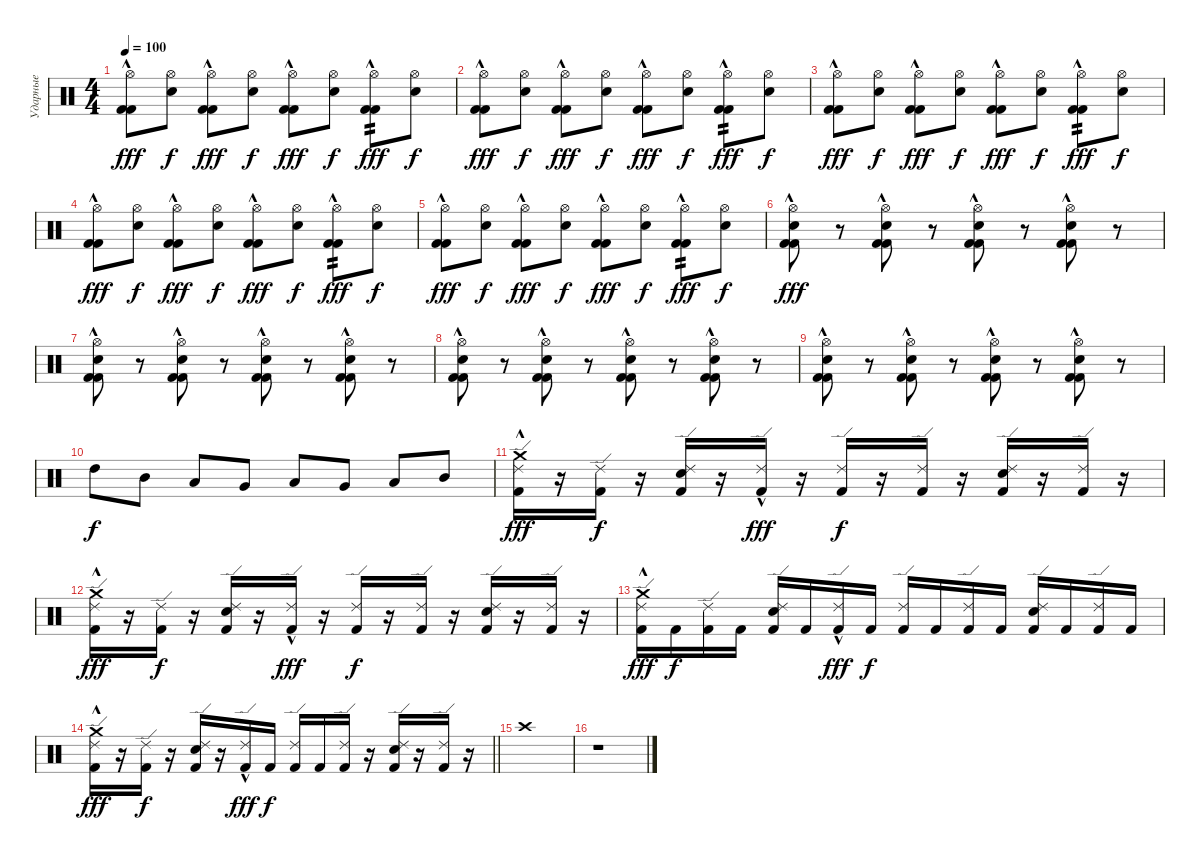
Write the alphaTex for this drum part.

\track ("Ударные" "Ударные") {instrument percussion}
\staff {score}
\articulation defaults
\ts (4 4)
\tempo 100
\clef neutral
\ks c
("Hi-Hat (open)" "Kick (hit) 2"{hac} "Kick (hit) 2").8{dy fff} ("Hi-Hat (open)" "Electric Snare (hit)").8{dy f} ("Hi-Hat (open)" "Kick (hit) 2"{hac} "Kick (hit) 2").8{dy fff} ("Hi-Hat (open)" "Electric Snare (hit)").8{dy f} ("Hi-Hat (open)" "Kick (hit) 2"{hac} "Kick (hit) 2").8{dy fff} ("Hi-Hat (open)" "Electric Snare (hit)").8{dy f} ("Hi-Hat (open)" "Kick (hit) 2"{hac} "Kick (hit) 2").8{tp 2 dy fff} ("Hi-Hat (open)" "Electric Snare (hit)").8{dy f} |
("Hi-Hat (open)" "Kick (hit) 2"{hac} "Kick (hit) 2").8{dy fff} ("Hi-Hat (open)" "Electric Snare (hit)").8{dy f} ("Hi-Hat (open)" "Kick (hit) 2"{hac} "Kick (hit) 2").8{dy fff} ("Hi-Hat (open)" "Electric Snare (hit)").8{dy f} ("Hi-Hat (open)" "Kick (hit) 2"{hac} "Kick (hit) 2").8{dy fff} ("Hi-Hat (open)" "Electric Snare (hit)").8{dy f} ("Hi-Hat (open)" "Kick (hit) 2"{hac} "Kick (hit) 2").8{tp 2 dy fff} ("Hi-Hat (open)" "Electric Snare (hit)").8{dy f} |
("Hi-Hat (open)" "Kick (hit) 2"{hac} "Kick (hit) 2").8{dy fff} ("Hi-Hat (open)" "Electric Snare (hit)").8{dy f} ("Hi-Hat (open)" "Kick (hit) 2"{hac} "Kick (hit) 2").8{dy fff} ("Hi-Hat (open)" "Electric Snare (hit)").8{dy f} ("Hi-Hat (open)" "Kick (hit) 2"{hac} "Kick (hit) 2").8{dy fff} ("Hi-Hat (open)" "Electric Snare (hit)").8{dy f} ("Hi-Hat (open)" "Kick (hit) 2"{hac} "Kick (hit) 2").8{tp 2 dy fff} ("Hi-Hat (open)" "Electric Snare (hit)").8{dy f} |
("Hi-Hat (open)" "Kick (hit) 2"{hac} "Kick (hit) 2").8{dy fff} ("Hi-Hat (open)" "Electric Snare (hit)").8{dy f} ("Hi-Hat (open)" "Kick (hit) 2"{hac} "Kick (hit) 2").8{dy fff} ("Hi-Hat (open)" "Electric Snare (hit)").8{dy f} ("Hi-Hat (open)" "Kick (hit) 2"{hac} "Kick (hit) 2").8{dy fff} ("Hi-Hat (open)" "Electric Snare (hit)").8{dy f} ("Hi-Hat (open)" "Kick (hit) 2"{hac} "Kick (hit) 2").8{tp 2 dy fff} ("Hi-Hat (open)" "Electric Snare (hit)").8{dy f} |
("Hi-Hat (open)" "Kick (hit) 2"{hac} "Kick (hit) 2").8{dy fff} ("Hi-Hat (open)" "Electric Snare (hit)").8{dy f} ("Hi-Hat (open)" "Kick (hit) 2"{hac} "Kick (hit) 2").8{dy fff} ("Hi-Hat (open)" "Electric Snare (hit)").8{dy f} ("Hi-Hat (open)" "Kick (hit) 2"{hac} "Kick (hit) 2").8{dy fff} ("Hi-Hat (open)" "Electric Snare (hit)").8{dy f} ("Hi-Hat (open)" "Kick (hit) 2"{hac} "Kick (hit) 2").8{tp 2 dy fff} ("Hi-Hat (open)" "Electric Snare (hit)").8{dy f} |
("Hi-Hat (open)" "Kick (hit) 2"{hac} "Kick (hit) 2" "Snare (hit) 2").8{dy fff} r.8 ("Hi-Hat (open)" "Kick (hit) 2"{hac} "Kick (hit) 2" "Snare (hit) 2").8 r.8 ("Hi-Hat (open)" "Kick (hit) 2"{hac} "Kick (hit) 2" "Snare (hit) 2").8 r.8 ("Hi-Hat (open)" "Kick (hit) 2"{hac} "Kick (hit) 2" "Snare (hit) 2").8 r.8 |
("Hi-Hat (open)" "Kick (hit) 2"{hac} "Kick (hit) 2" "Snare (hit) 2").8 r.8 ("Hi-Hat (open)" "Kick (hit) 2"{hac} "Kick (hit) 2" "Snare (hit) 2").8 r.8 ("Hi-Hat (open)" "Kick (hit) 2"{hac} "Kick (hit) 2" "Snare (hit) 2").8 r.8 ("Hi-Hat (open)" "Kick (hit) 2"{hac} "Kick (hit) 2" "Snare (hit) 2").8 r.8 |
("Hi-Hat (open)" "Kick (hit) 2"{hac} "Kick (hit) 2" "Snare (hit) 2").8 r.8 ("Hi-Hat (open)" "Kick (hit) 2"{hac} "Kick (hit) 2" "Snare (hit) 2").8 r.8 ("Hi-Hat (open)" "Kick (hit) 2"{hac} "Kick (hit) 2" "Snare (hit) 2").8 r.8 ("Hi-Hat (open)" "Kick (hit) 2"{hac} "Kick (hit) 2" "Snare (hit) 2").8 r.8 |
("Hi-Hat (open)" "Kick (hit) 2"{hac} "Kick (hit) 2" "Snare (hit) 2").8 r.8 ("Hi-Hat (open)" "Kick (hit) 2"{hac} "Kick (hit) 2" "Snare (hit) 2").8 r.8 ("Hi-Hat (open)" "Kick (hit) 2"{hac} "Kick (hit) 2" "Snare (hit) 2").8 r.8 ("Hi-Hat (open)" "Kick (hit) 2"{hac} "Kick (hit) 2" "Snare (hit) 2").8 r.8 |
"High Tom (hit)".8{dy f} "Mid Tom (hit)".8 "Low Tom (hit)".8 "Very Low Tom (hit)".8 "Low Floor Tom (hit)".8 "Very Low Tom (hit)".8 "Low Tom (hit)".8 "Mid Tom (hit)".8 |
("Ride (edge) 2" "Crash medium (hit)" "Kick (hit) 2"{hac}).16{dy fff} r.16 ("Ride (edge) 2" "Kick (hit) 2").16{dy f} r.16 ("Ride (edge) 2" "Snare (hit) 2" "Kick (hit) 2").16 r.16 ("Ride (edge) 2" "Kick (hit) 2"{hac}).16{dy fff} r.16 ("Ride (edge) 2" "Kick (hit) 2").16{dy f} r.16 ("Ride (edge) 2" "Kick (hit) 2").16 r.16 ("Ride (edge) 2" "Snare (hit) 2" "Kick (hit) 2").16 r.16 ("Ride (edge) 2" "Kick (hit) 2").16 r.16 |
("Ride (edge) 2" "Crash medium (hit)" "Kick (hit) 2"{hac}).16{dy fff} r.16 ("Ride (edge) 2" "Kick (hit) 2").16{dy f} r.16 ("Ride (edge) 2" "Snare (hit) 2" "Kick (hit) 2").16 r.16 ("Ride (edge) 2" "Kick (hit) 2"{hac}).16{dy fff} r.16 ("Ride (edge) 2" "Kick (hit) 2").16{dy f} r.16 ("Ride (edge) 2" "Kick (hit) 2").16 r.16 ("Ride (edge) 2" "Snare (hit) 2" "Kick (hit) 2").16 r.16 ("Ride (edge) 2" "Kick (hit) 2").16 r.16 |
("Ride (edge) 2" "Crash medium (hit)" "Kick (hit) 2"{hac}).16{dy fff} "Kick (hit) 2".16{dy f} ("Ride (edge) 2" "Kick (hit) 2").16 "Kick (hit) 2".16 ("Ride (edge) 2" "Snare (hit) 2" "Kick (hit) 2").16 "Kick (hit) 2".16 ("Ride (edge) 2" "Kick (hit) 2"{hac}).16{dy fff} "Kick (hit) 2".16{dy f} ("Ride (edge) 2" "Kick (hit) 2").16 "Kick (hit) 2".16 ("Ride (edge) 2" "Kick (hit) 2").16 "Kick (hit) 2".16 ("Ride (edge) 2" "Snare (hit) 2" "Kick (hit) 2").16 "Kick (hit) 2".16 ("Ride (edge) 2" "Kick (hit) 2").16 "Kick (hit) 2".16 |
\barLineRight lightlight
("Ride (edge) 2" "Crash medium (hit)" "Kick (hit) 2"{hac}).16{dy fff} r.16 ("Ride (edge) 2" "Kick (hit) 2").16{dy f} r.16 ("Ride (edge) 2" "Snare (hit) 2" "Kick (hit) 2").16 r.16 ("Ride (edge) 2" "Kick (hit) 2"{hac}).16{dy fff} "Kick (hit) 2".16{dy f} ("Ride (edge) 2" "Kick (hit) 2").16 "Kick (hit) 2".16 ("Ride (edge) 2" "Kick (hit) 2").16 r.16 ("Ride (edge) 2" "Snare (hit) 2" "Kick (hit) 2").16 r.16 ("Ride (edge) 2" "Kick (hit) 2").16 r.16 |
"Crash high (hit)".1 |
r.1
